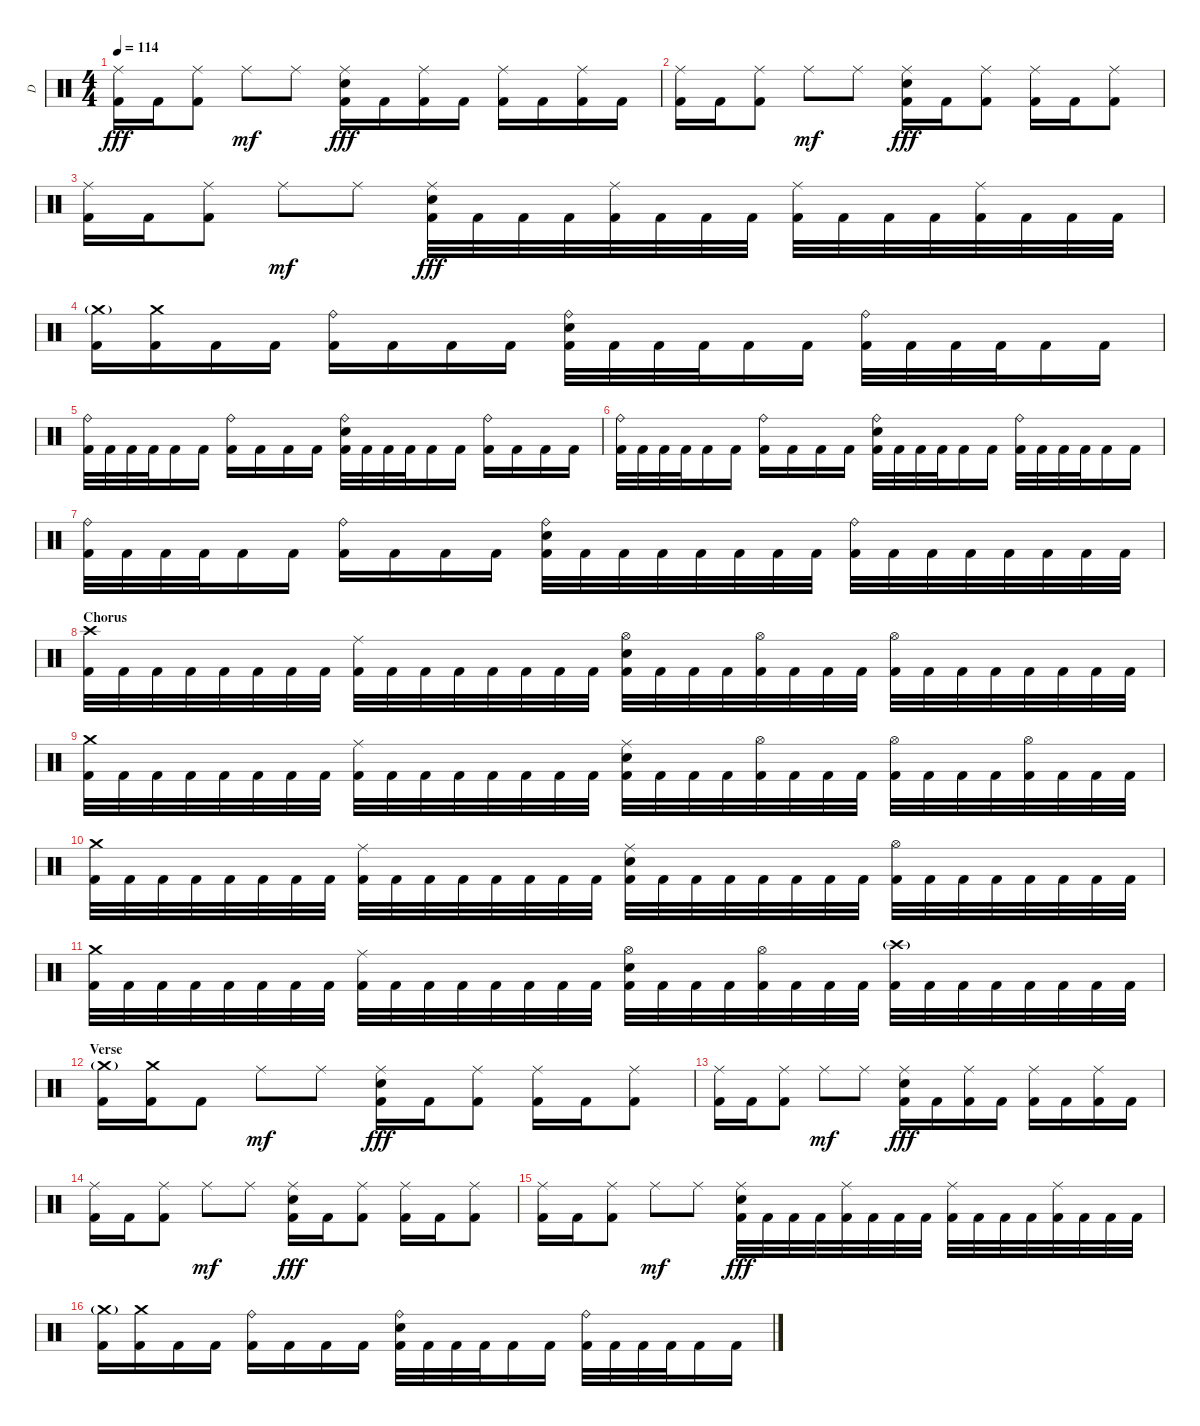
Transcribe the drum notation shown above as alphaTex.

\track ("D" "D") {instrument percussion}
\staff {score}
\articulation defaults
\ts (4 4)
\tempo 114
\clef neutral
\ks c
("Ride (middle)" "Kick (hit) 2").16{dy fff} "Kick (hit) 2".16 ("Ride (middle)" "Kick (hit) 2").8 "Ride (middle)".8{dy mf} "Ride (middle)".8 ("Ride (middle)" "Electric Snare (hit)" "Kick (hit) 2").16{dy fff} "Kick (hit) 2".16 ("Ride (middle)" "Kick (hit) 2").16 "Kick (hit) 2".16 ("Ride (middle)" "Kick (hit) 2").16 "Kick (hit) 2".16 ("Ride (middle)" "Kick (hit) 2").16 "Kick (hit) 2".16 |
("Ride (middle)" "Kick (hit) 2").16 "Kick (hit) 2".16 ("Ride (middle)" "Kick (hit) 2").8 "Ride (middle)".8{dy mf} "Ride (middle)".8 ("Ride (middle)" "Electric Snare (hit)" "Kick (hit) 2").16{dy fff} "Kick (hit) 2".16 ("Ride (middle)" "Kick (hit) 2").8 ("Ride (middle)" "Kick (hit) 2").16 "Kick (hit) 2".16 ("Ride (middle)" "Kick (hit) 2").8 |
("Ride (middle)" "Kick (hit) 2").16 "Kick (hit) 2".16 ("Ride (middle)" "Kick (hit) 2").8 "Ride (middle)".8{dy mf} "Ride (middle)".8 ("Ride (middle)" "Electric Snare (hit)" "Kick (hit) 2").32{dy fff} "Kick (hit) 2".32 "Kick (hit) 2".32 "Kick (hit) 2".32 ("Ride (middle)" "Kick (hit) 2").32 "Kick (hit) 2".32 "Kick (hit) 2".32 "Kick (hit) 2".32 ("Ride (middle)" "Kick (hit) 2").32 "Kick (hit) 2".32 "Kick (hit) 2".32 "Kick (hit) 2".32 ("Ride (middle)" "Kick (hit) 2").32 "Kick (hit) 2".32 "Kick (hit) 2".32 "Kick (hit) 2".32 |
("Crash medium (hit)"{g} "Kick (hit) 2").16 ("Crash medium (hit)" "Kick (hit) 2").16 "Kick (hit) 2".16 "Kick (hit) 2".16 ("Ride (bell)" "Kick (hit) 2").16 "Kick (hit) 2".16 "Kick (hit) 2".16 "Kick (hit) 2".16 ("Ride (bell)" "Electric Snare (hit)" "Kick (hit) 2").32 "Kick (hit) 2".32 "Kick (hit) 2".32 "Kick (hit) 2".32 "Kick (hit) 2".16 "Kick (hit) 2".16 ("Ride (bell)" "Kick (hit) 2").32 "Kick (hit) 2".32 "Kick (hit) 2".32 "Kick (hit) 2".32 "Kick (hit) 2".16 "Kick (hit) 2".16 |
("Ride (bell)" "Kick (hit) 2").32 "Kick (hit) 2".32 "Kick (hit) 2".32 "Kick (hit) 2".32 "Kick (hit) 2".16 "Kick (hit) 2".16 ("Ride (bell)" "Kick (hit) 2").16 "Kick (hit) 2".16 "Kick (hit) 2".16 "Kick (hit) 2".16 ("Ride (bell)" "Electric Snare (hit)" "Kick (hit) 2").32 "Kick (hit) 2".32 "Kick (hit) 2".32 "Kick (hit) 2".32 "Kick (hit) 2".16 "Kick (hit) 2".16 ("Ride (bell)" "Kick (hit) 2").16 "Kick (hit) 2".16 "Kick (hit) 2".16 "Kick (hit) 2".16 |
("Ride (bell)" "Kick (hit) 2").32 "Kick (hit) 2".32 "Kick (hit) 2".32 "Kick (hit) 2".32 "Kick (hit) 2".16 "Kick (hit) 2".16 ("Ride (bell)" "Kick (hit) 2").16 "Kick (hit) 2".16 "Kick (hit) 2".16 "Kick (hit) 2".16 ("Ride (bell)" "Electric Snare (hit)" "Kick (hit) 2").32 "Kick (hit) 2".32 "Kick (hit) 2".32 "Kick (hit) 2".32 "Kick (hit) 2".16 "Kick (hit) 2".16 ("Ride (bell)" "Kick (hit) 2").32 "Kick (hit) 2".32 "Kick (hit) 2".32 "Kick (hit) 2".32 "Kick (hit) 2".16 "Kick (hit) 2".16 |
("Ride (bell)" "Kick (hit) 2").32 "Kick (hit) 2".32 "Kick (hit) 2".32 "Kick (hit) 2".32 "Kick (hit) 2".16 "Kick (hit) 2".16 ("Ride (bell)" "Kick (hit) 2").16 "Kick (hit) 2".16 "Kick (hit) 2".16 "Kick (hit) 2".16 ("Ride (bell)" "Electric Snare (hit)" "Kick (hit) 2").32 "Kick (hit) 2".32 "Kick (hit) 2".32 "Kick (hit) 2".32 "Kick (hit) 2".32 "Kick (hit) 2".32 "Kick (hit) 2".32 "Kick (hit) 2".32 ("Ride (bell)" "Kick (hit) 2").32 "Kick (hit) 2".32 "Kick (hit) 2".32 "Kick (hit) 2".32 "Kick (hit) 2".32 "Kick (hit) 2".32 "Kick (hit) 2".32 "Kick (hit) 2".32 |
\section ("" "Chorus")
("Crash high (hit)" "Kick (hit) 2").32 "Kick (hit) 2".32 "Kick (hit) 2".32 "Kick (hit) 2".32 "Kick (hit) 2".32 "Kick (hit) 2".32 "Kick (hit) 2".32 "Kick (hit) 2".32 ("Ride (middle)" "Kick (hit) 2").32 "Kick (hit) 2".32 "Kick (hit) 2".32 "Kick (hit) 2".32 "Kick (hit) 2".32 "Kick (hit) 2".32 "Kick (hit) 2".32 "Kick (hit) 2".32 ("Hi-Hat (open)" "Electric Snare (hit)" "Kick (hit) 2").32 "Kick (hit) 2".32 "Kick (hit) 2".32 "Kick (hit) 2".32 ("Hi-Hat (open)" "Kick (hit) 2").32 "Kick (hit) 2".32 "Kick (hit) 2".32 "Kick (hit) 2".32 ("Hi-Hat (open)" "Kick (hit) 2").32 "Kick (hit) 2".32 "Kick (hit) 2".32 "Kick (hit) 2".32 "Kick (hit) 2".32 "Kick (hit) 2".32 "Kick (hit) 2".32 "Kick (hit) 2".32 |
("Crash medium (hit)" "Kick (hit) 2").32 "Kick (hit) 2".32 "Kick (hit) 2".32 "Kick (hit) 2".32 "Kick (hit) 2".32 "Kick (hit) 2".32 "Kick (hit) 2".32 "Kick (hit) 2".32 ("Ride (middle)" "Kick (hit) 2").32 "Kick (hit) 2".32 "Kick (hit) 2".32 "Kick (hit) 2".32 "Kick (hit) 2".32 "Kick (hit) 2".32 "Kick (hit) 2".32 "Kick (hit) 2".32 ("Ride (middle)" "Electric Snare (hit)" "Kick (hit) 2").32 "Kick (hit) 2".32 "Kick (hit) 2".32 "Kick (hit) 2".32 ("Hi-Hat (open)" "Kick (hit) 2").32 "Kick (hit) 2".32 "Kick (hit) 2".32 "Kick (hit) 2".32 ("Hi-Hat (open)" "Kick (hit) 2").32 "Kick (hit) 2".32 "Kick (hit) 2".32 "Kick (hit) 2".32 ("Hi-Hat (open)" "Kick (hit) 2").32 "Kick (hit) 2".32 "Kick (hit) 2".32 "Kick (hit) 2".32 |
("Crash medium (hit)" "Kick (hit) 2").32 "Kick (hit) 2".32 "Kick (hit) 2".32 "Kick (hit) 2".32 "Kick (hit) 2".32 "Kick (hit) 2".32 "Kick (hit) 2".32 "Kick (hit) 2".32 ("Ride (middle)" "Kick (hit) 2").32 "Kick (hit) 2".32 "Kick (hit) 2".32 "Kick (hit) 2".32 "Kick (hit) 2".32 "Kick (hit) 2".32 "Kick (hit) 2".32 "Kick (hit) 2".32 ("Ride (middle)" "Electric Snare (hit)" "Kick (hit) 2").32 "Kick (hit) 2".32 "Kick (hit) 2".32 "Kick (hit) 2".32 "Kick (hit) 2".32 "Kick (hit) 2".32 "Kick (hit) 2".32 "Kick (hit) 2".32 ("Hi-Hat (open)" "Kick (hit) 2").32 "Kick (hit) 2".32 "Kick (hit) 2".32 "Kick (hit) 2".32 "Kick (hit) 2".32 "Kick (hit) 2".32 "Kick (hit) 2".32 "Kick (hit) 2".32 |
("Crash medium (hit)" "Kick (hit) 2").32 "Kick (hit) 2".32 "Kick (hit) 2".32 "Kick (hit) 2".32 "Kick (hit) 2".32 "Kick (hit) 2".32 "Kick (hit) 2".32 "Kick (hit) 2".32 ("Ride (middle)" "Kick (hit) 2").32 "Kick (hit) 2".32 "Kick (hit) 2".32 "Kick (hit) 2".32 "Kick (hit) 2".32 "Kick (hit) 2".32 "Kick (hit) 2".32 "Kick (hit) 2".32 ("Hi-Hat (open)" "Electric Snare (hit)" "Kick (hit) 2").32 "Kick (hit) 2".32 "Kick (hit) 2".32 "Kick (hit) 2".32 ("Hi-Hat (open)" "Kick (hit) 2").32 "Kick (hit) 2".32 "Kick (hit) 2".32 "Kick (hit) 2".32 ("Crash high (hit)"{g} "Kick (hit) 2").32 "Kick (hit) 2".32 "Kick (hit) 2".32 "Kick (hit) 2".32 "Kick (hit) 2".32 "Kick (hit) 2".32 "Kick (hit) 2".32 "Kick (hit) 2".32 |
\section ("" "Verse")
("Crash medium (hit)"{g} "Kick (hit) 2").16 ("Crash medium (hit)" "Kick (hit) 2").16 "Kick (hit) 2".8 "Ride (middle)".8{dy mf} "Ride (middle)".8 ("Ride (middle)" "Electric Snare (hit)" "Kick (hit) 2").16{dy fff} "Kick (hit) 2".16 ("Ride (middle)" "Kick (hit) 2").8 ("Ride (middle)" "Kick (hit) 2").16 "Kick (hit) 2".16 ("Ride (middle)" "Kick (hit) 2").8 |
("Ride (middle)" "Kick (hit) 2").16 "Kick (hit) 2".16 ("Ride (middle)" "Kick (hit) 2").8 "Ride (middle)".8{dy mf} "Ride (middle)".8 ("Ride (middle)" "Electric Snare (hit)" "Kick (hit) 2").16{dy fff} "Kick (hit) 2".16 ("Ride (middle)" "Kick (hit) 2").16 "Kick (hit) 2".16 ("Ride (middle)" "Kick (hit) 2").16 "Kick (hit) 2".16 ("Ride (middle)" "Kick (hit) 2").16 "Kick (hit) 2".16 |
("Ride (middle)" "Kick (hit) 2").16 "Kick (hit) 2".16 ("Ride (middle)" "Kick (hit) 2").8 "Ride (middle)".8{dy mf} "Ride (middle)".8 ("Ride (middle)" "Electric Snare (hit)" "Kick (hit) 2").16{dy fff} "Kick (hit) 2".16 ("Ride (middle)" "Kick (hit) 2").8 ("Ride (middle)" "Kick (hit) 2").16 "Kick (hit) 2".16 ("Ride (middle)" "Kick (hit) 2").8 |
("Ride (middle)" "Kick (hit) 2").16 "Kick (hit) 2".16 ("Ride (middle)" "Kick (hit) 2").8 "Ride (middle)".8{dy mf} "Ride (middle)".8 ("Ride (middle)" "Electric Snare (hit)" "Kick (hit) 2").32{dy fff} "Kick (hit) 2".32 "Kick (hit) 2".32 "Kick (hit) 2".32 ("Ride (middle)" "Kick (hit) 2").32 "Kick (hit) 2".32 "Kick (hit) 2".32 "Kick (hit) 2".32 ("Ride (middle)" "Kick (hit) 2").32 "Kick (hit) 2".32 "Kick (hit) 2".32 "Kick (hit) 2".32 ("Ride (middle)" "Kick (hit) 2").32 "Kick (hit) 2".32 "Kick (hit) 2".32 "Kick (hit) 2".32 |
("Crash medium (hit)"{g} "Kick (hit) 2").16 ("Crash medium (hit)" "Kick (hit) 2").16 "Kick (hit) 2".16 "Kick (hit) 2".16 ("Ride (bell)" "Kick (hit) 2").16 "Kick (hit) 2".16 "Kick (hit) 2".16 "Kick (hit) 2".16 ("Ride (bell)" "Electric Snare (hit)" "Kick (hit) 2").32 "Kick (hit) 2".32 "Kick (hit) 2".32 "Kick (hit) 2".32 "Kick (hit) 2".16 "Kick (hit) 2".16 ("Ride (bell)" "Kick (hit) 2").32 "Kick (hit) 2".32 "Kick (hit) 2".32 "Kick (hit) 2".32 "Kick (hit) 2".16 "Kick (hit) 2".16
